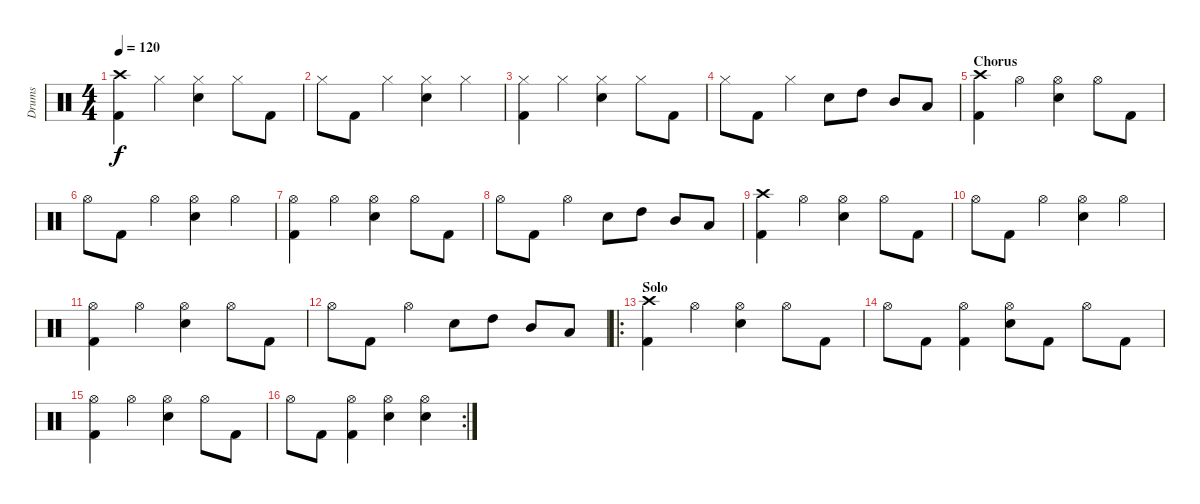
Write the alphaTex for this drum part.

\track ("Drums" "Drums") {instrument percussion}
\staff {score}
\articulation defaults
\ts (4 4)
\tempo 120
\clef neutral
\ks c
("Crash high (hit)" "Kick (hit) 2").4{dy f} "Hi-Hat (closed)".4 ("Hi-Hat (closed)" "Electric Snare (hit)").4 "Hi-Hat (closed)".8 "Kick (hit) 2".8 |
"Hi-Hat (closed)".8 "Kick (hit) 2".8 "Hi-Hat (closed)".4 ("Hi-Hat (closed)" "Electric Snare (hit)").4 "Hi-Hat (closed)".4 |
("Hi-Hat (closed)" "Kick (hit) 2").4 "Hi-Hat (closed)".4 ("Hi-Hat (closed)" "Electric Snare (hit)").4 "Hi-Hat (closed)".8 "Kick (hit) 2".8 |
"Hi-Hat (closed)".8 "Kick (hit) 2".8 "Hi-Hat (closed)".4 "Electric Snare (hit)".8 "High Tom (hit)".8 "Mid Tom (hit)".8 "Low Tom (hit)".8 |
\section ("" "Chorus")
("Crash high (hit)" "Kick (hit) 2").4 "Hi-Hat (open)".4 ("Hi-Hat (open)" "Electric Snare (hit)").4 "Hi-Hat (open)".8 "Kick (hit) 2".8 |
"Hi-Hat (open)".8 "Kick (hit) 2".8 "Hi-Hat (open)".4 ("Hi-Hat (open)" "Electric Snare (hit)").4 "Hi-Hat (open)".4 |
("Hi-Hat (open)" "Kick (hit) 2").4 "Hi-Hat (open)".4 ("Hi-Hat (open)" "Electric Snare (hit)").4 "Hi-Hat (open)".8 "Kick (hit) 2".8 |
"Hi-Hat (open)".8 "Kick (hit) 2".8 "Hi-Hat (open)".4 "Electric Snare (hit)".8 "High Tom (hit)".8 "Mid Tom (hit)".8 "Low Tom (hit)".8 |
("Crash high (hit)" "Kick (hit) 2").4 "Hi-Hat (open)".4 ("Hi-Hat (open)" "Electric Snare (hit)").4 "Hi-Hat (open)".8 "Kick (hit) 2".8 |
"Hi-Hat (open)".8 "Kick (hit) 2".8 "Hi-Hat (open)".4 ("Hi-Hat (open)" "Electric Snare (hit)").4 "Hi-Hat (open)".4 |
("Hi-Hat (open)" "Kick (hit) 2").4 "Hi-Hat (open)".4 ("Hi-Hat (open)" "Electric Snare (hit)").4 "Hi-Hat (open)".8 "Kick (hit) 2".8 |
"Hi-Hat (open)".8 "Kick (hit) 2".8 "Hi-Hat (open)".4 "Electric Snare (hit)".8 "High Tom (hit)".8 "Mid Tom (hit)".8 "Low Tom (hit)".8 |
\ro
\section ("" "Solo")
("Crash high (hit)" "Kick (hit) 2").4 "Hi-Hat (open)".4 ("Hi-Hat (open)" "Electric Snare (hit)").4 "Hi-Hat (open)".8 "Kick (hit) 2".8 |
"Hi-Hat (open)".8 "Kick (hit) 2".8 ("Hi-Hat (open)" "Kick (hit) 2").4 ("Hi-Hat (open)" "Electric Snare (hit)").8 "Kick (hit) 2".8 "Hi-Hat (open)".8 "Kick (hit) 2".8 |
("Hi-Hat (open)" "Kick (hit) 2").4 "Hi-Hat (open)".4 ("Hi-Hat (open)" "Electric Snare (hit)").4 "Hi-Hat (open)".8 "Kick (hit) 2".8 |
\rc 2 "Hi-Hat (open)".8 "Kick (hit) 2".8
("Hi-Hat (open)" "Kick (hit) 2").4 ("Hi-Hat (open)" "Electric Snare (hit)").4 ("Hi-Hat (open)" "Electric Snare (hit)").4
